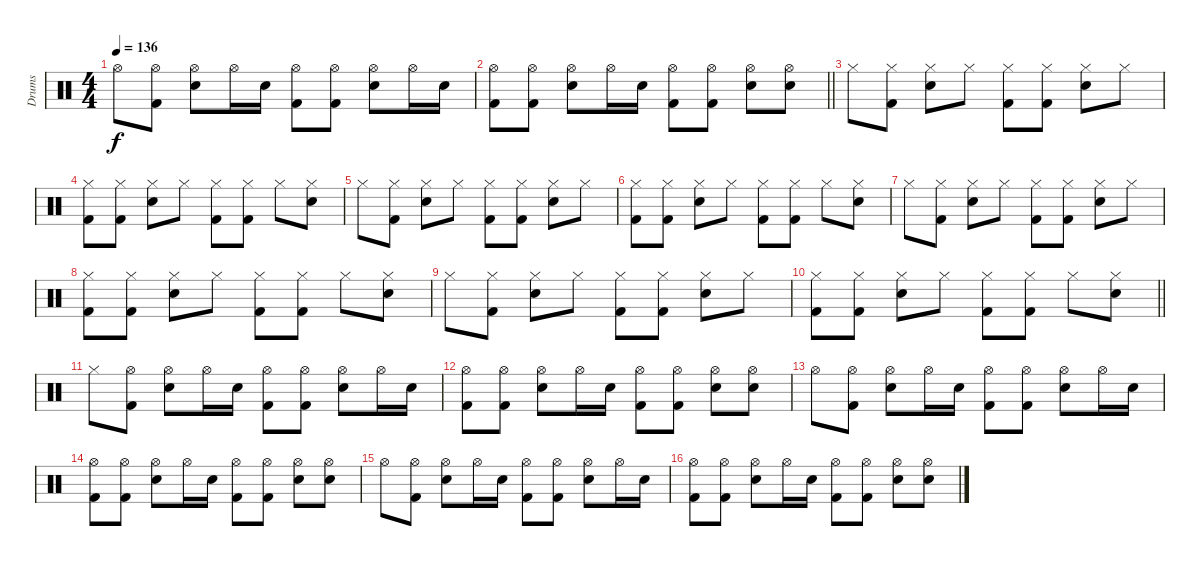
\track ("Drums" "Drums") {instrument percussion}
\staff {score}
\articulation defaults
\ts (4 4)
\tempo 136
\clef neutral
\ks c "Hi-Hat (open)".8{dy f}
("Hi-Hat (open)" "Kick (hit) 2").8 ("Hi-Hat (open)" "Snare (hit) 2").8 "Hi-Hat (open)".16 "Snare (hit) 2".16 ("Hi-Hat (open)" "Kick (hit) 2").8 ("Hi-Hat (open)" "Kick (hit) 2").8 ("Hi-Hat (open)" "Snare (hit) 2").8 "Hi-Hat (open)".16 "Snare (hit) 2".16 |
\barLineRight lightlight
("Hi-Hat (open)" "Kick (hit) 2").8 ("Hi-Hat (open)" "Kick (hit) 2").8 ("Hi-Hat (open)" "Snare (hit) 2").8 "Hi-Hat (open)".16 "Snare (hit) 2".16 ("Hi-Hat (open)" "Kick (hit) 2").8 ("Hi-Hat (open)" "Kick (hit) 2").8 ("Hi-Hat (open)" "Snare (hit) 2").8 ("Hi-Hat (open)" "Snare (hit) 2").8 |
\section ("" "")
"Hi-Hat (closed)".8 ("Hi-Hat (closed)" "Kick (hit) 2").8 ("Hi-Hat (closed)" "Snare (hit) 2").8 "Hi-Hat (closed)".8 ("Hi-Hat (closed)" "Kick (hit) 2").8 ("Hi-Hat (closed)" "Kick (hit) 2").8 ("Hi-Hat (closed)" "Snare (hit) 2").8 "Hi-Hat (closed)".8 |
("Hi-Hat (closed)" "Kick (hit) 2").8 ("Hi-Hat (closed)" "Kick (hit) 2").8 ("Hi-Hat (closed)" "Snare (hit) 2").8 "Hi-Hat (closed)".8 ("Hi-Hat (closed)" "Kick (hit) 2").8 ("Hi-Hat (closed)" "Kick (hit) 2").8 "Hi-Hat (closed)".8 ("Hi-Hat (closed)" "Snare (hit) 2").8 |
"Hi-Hat (closed)".8 ("Hi-Hat (closed)" "Kick (hit) 2").8 ("Hi-Hat (closed)" "Snare (hit) 2").8 "Hi-Hat (closed)".8 ("Hi-Hat (closed)" "Kick (hit) 2").8 ("Hi-Hat (closed)" "Kick (hit) 2").8 ("Hi-Hat (closed)" "Snare (hit) 2").8 "Hi-Hat (closed)".8 |
("Hi-Hat (closed)" "Kick (hit) 2").8 ("Hi-Hat (closed)" "Kick (hit) 2").8 ("Hi-Hat (closed)" "Snare (hit) 2").8 "Hi-Hat (closed)".8 ("Hi-Hat (closed)" "Kick (hit) 2").8 ("Hi-Hat (closed)" "Kick (hit) 2").8 "Hi-Hat (closed)".8 ("Hi-Hat (closed)" "Snare (hit) 2").8 |
"Hi-Hat (closed)".8 ("Hi-Hat (closed)" "Kick (hit) 2").8 ("Hi-Hat (closed)" "Snare (hit) 2").8 "Hi-Hat (closed)".8 ("Hi-Hat (closed)" "Kick (hit) 2").8 ("Hi-Hat (closed)" "Kick (hit) 2").8 ("Hi-Hat (closed)" "Snare (hit) 2").8 "Hi-Hat (closed)".8 |
("Hi-Hat (closed)" "Kick (hit) 2").8 ("Hi-Hat (closed)" "Kick (hit) 2").8 ("Hi-Hat (closed)" "Snare (hit) 2").8 "Hi-Hat (closed)".8 ("Hi-Hat (closed)" "Kick (hit) 2").8 ("Hi-Hat (closed)" "Kick (hit) 2").8 "Hi-Hat (closed)".8 ("Hi-Hat (closed)" "Snare (hit) 2").8 |
"Hi-Hat (closed)".8 ("Hi-Hat (closed)" "Kick (hit) 2").8 ("Hi-Hat (closed)" "Snare (hit) 2").8 "Hi-Hat (closed)".8 ("Hi-Hat (closed)" "Kick (hit) 2").8 ("Hi-Hat (closed)" "Kick (hit) 2").8 ("Hi-Hat (closed)" "Snare (hit) 2").8 "Hi-Hat (closed)".8 |
\barLineRight lightlight
("Hi-Hat (closed)" "Kick (hit) 2").8 ("Hi-Hat (closed)" "Kick (hit) 2").8 ("Hi-Hat (closed)" "Snare (hit) 2").8 "Hi-Hat (closed)".8 ("Hi-Hat (closed)" "Kick (hit) 2").8 ("Hi-Hat (closed)" "Kick (hit) 2").8 "Hi-Hat (closed)".8 ("Hi-Hat (closed)" "Snare (hit) 2").8 |
\section ("" "")
"Hi-Hat (closed)".8 ("Hi-Hat (open)" "Kick (hit) 2").8 ("Hi-Hat (open)" "Snare (hit) 2").8 "Hi-Hat (open)".16 "Snare (hit) 2".16 ("Hi-Hat (open)" "Kick (hit) 2").8 ("Hi-Hat (open)" "Kick (hit) 2").8 ("Hi-Hat (open)" "Snare (hit) 2").8 "Hi-Hat (open)".16 "Snare (hit) 2".16 |
("Hi-Hat (open)" "Kick (hit) 2").8 ("Hi-Hat (open)" "Kick (hit) 2").8 ("Hi-Hat (open)" "Snare (hit) 2").8 "Hi-Hat (open)".16 "Snare (hit) 2".16 ("Hi-Hat (open)" "Kick (hit) 2").8 ("Hi-Hat (open)" "Kick (hit) 2").8 ("Hi-Hat (open)" "Snare (hit) 2").8 ("Hi-Hat (open)" "Snare (hit) 2").8 |
"Hi-Hat (open)".8 ("Hi-Hat (open)" "Kick (hit) 2").8 ("Hi-Hat (open)" "Snare (hit) 2").8 "Hi-Hat (open)".16 "Snare (hit) 2".16 ("Hi-Hat (open)" "Kick (hit) 2").8 ("Hi-Hat (open)" "Kick (hit) 2").8 ("Hi-Hat (open)" "Snare (hit) 2").8 "Hi-Hat (open)".16 "Snare (hit) 2".16 |
("Hi-Hat (open)" "Kick (hit) 2").8 ("Hi-Hat (open)" "Kick (hit) 2").8 ("Hi-Hat (open)" "Snare (hit) 2").8 "Hi-Hat (open)".16 "Snare (hit) 2".16 ("Hi-Hat (open)" "Kick (hit) 2").8 ("Hi-Hat (open)" "Kick (hit) 2").8 ("Hi-Hat (open)" "Snare (hit) 2").8 ("Hi-Hat (open)" "Snare (hit) 2").8 |
"Hi-Hat (open)".8 ("Hi-Hat (open)" "Kick (hit) 2").8 ("Hi-Hat (open)" "Snare (hit) 2").8 "Hi-Hat (open)".16 "Snare (hit) 2".16 ("Hi-Hat (open)" "Kick (hit) 2").8 ("Hi-Hat (open)" "Kick (hit) 2").8 ("Hi-Hat (open)" "Snare (hit) 2").8 "Hi-Hat (open)".16 "Snare (hit) 2".16 |
("Hi-Hat (open)" "Kick (hit) 2").8 ("Hi-Hat (open)" "Kick (hit) 2").8 ("Hi-Hat (open)" "Snare (hit) 2").8 "Hi-Hat (open)".16 "Snare (hit) 2".16 ("Hi-Hat (open)" "Kick (hit) 2").8 ("Hi-Hat (open)" "Kick (hit) 2").8 ("Hi-Hat (open)" "Snare (hit) 2").8 ("Hi-Hat (open)" "Snare (hit) 2").8
